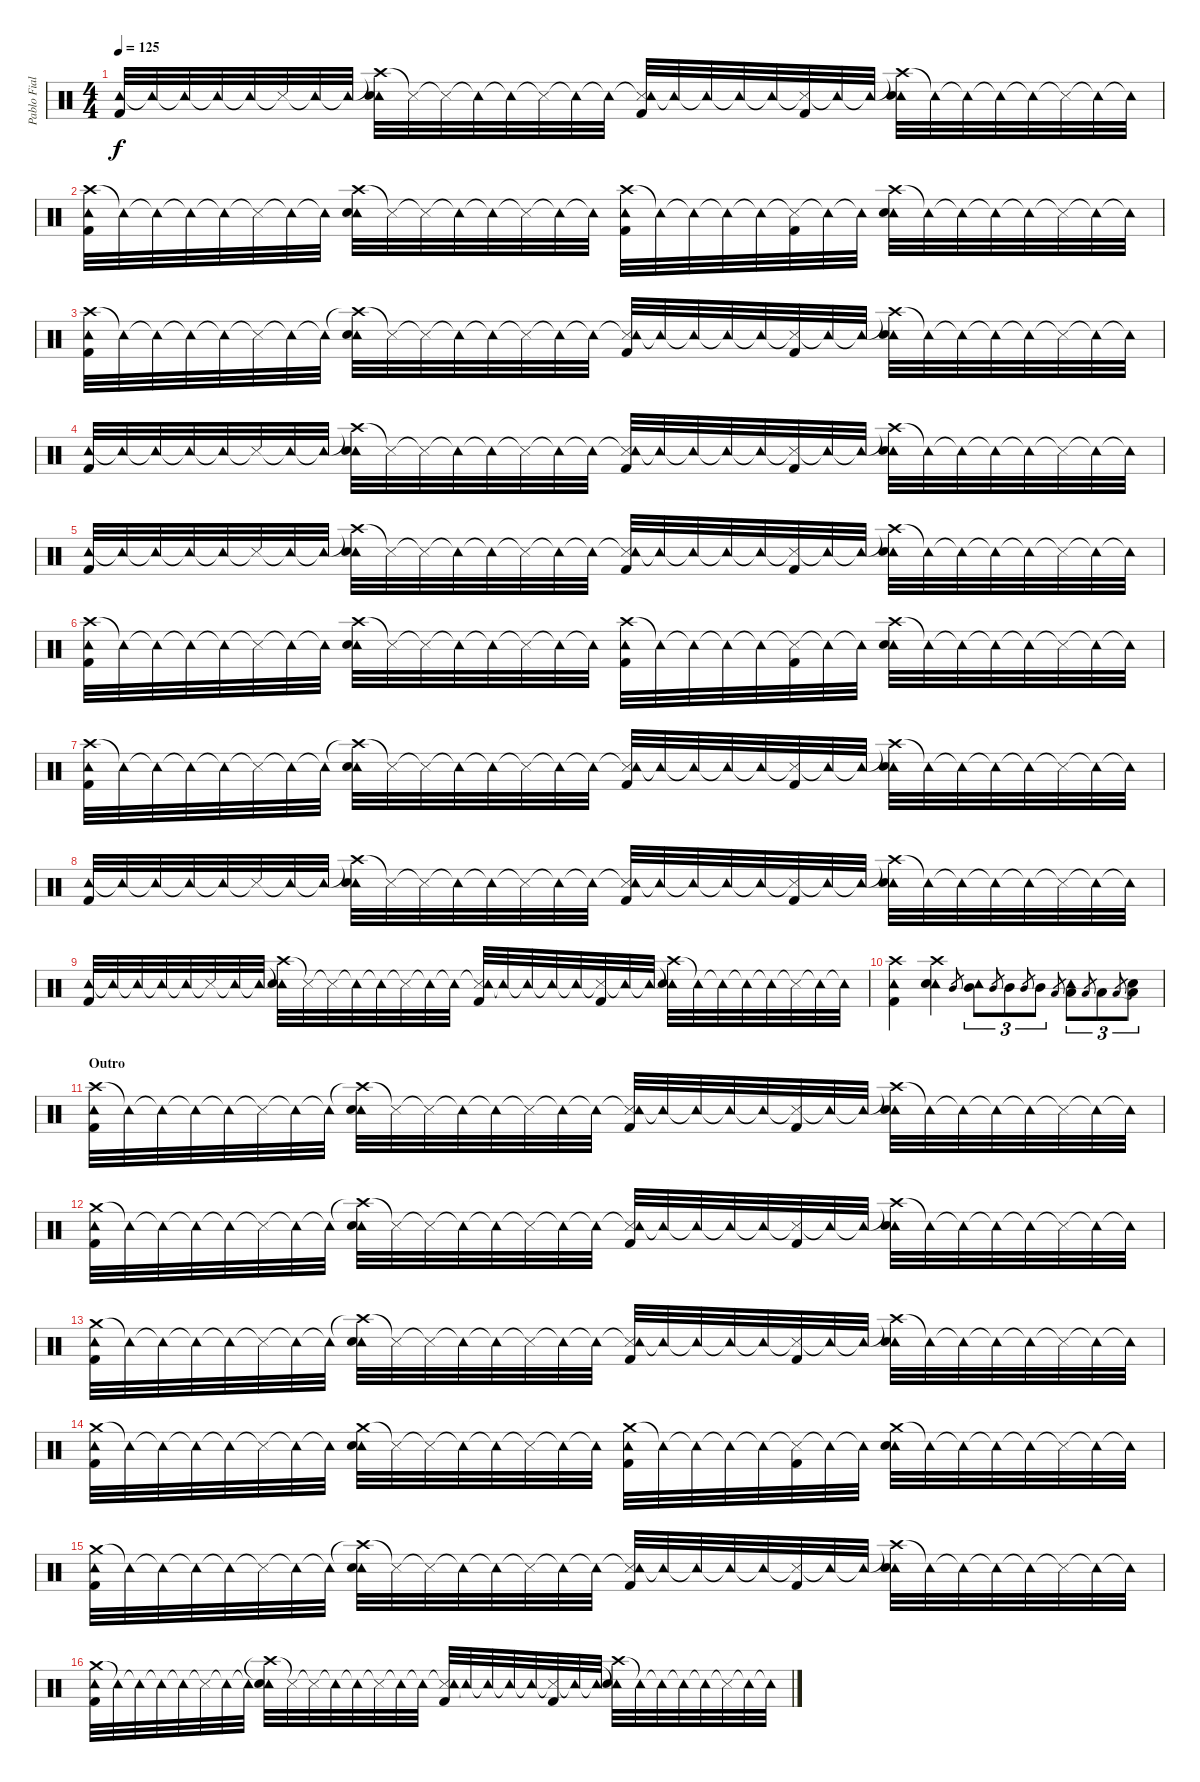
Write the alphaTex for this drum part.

\track ("Pablo Fiallo" "Pablo Fial") {instrument percussion}
\staff {score}
\articulation defaults
\ts (4 4)
\tempo 125
\clef neutral
\ks c
("Tambourine (hit)" "Kick (hit) 2").32{dy f} "Tambourine (hit)"{t}.32 "Tambourine (hit)"{t}.32 "Tambourine (hit)"{t}.32 "Tambourine (hit)"{t}.32 "Snare (side stick) 3"{t}.32 "Tambourine (hit)"{t}.32 "Tambourine (hit)"{t}.32 ("Crash high (hit)"{t} "Tambourine (hit)" "Snare (hit) 2").32 "Snare (side stick) 3"{t}.32 "Snare (side stick) 3"{t}.32 "Tambourine (hit)"{t}.32 "Tambourine (hit)"{t}.32 "Snare (side stick) 3"{t}.32 "Tambourine (hit)"{t}.32 "Tambourine (hit)"{t}.32 ("Snare (side stick) 3"{t} "Tambourine (hit)" "Kick (hit) 2").32 "Tambourine (hit)"{t}.32 "Tambourine (hit)"{t}.32 "Tambourine (hit)"{t}.32 "Tambourine (hit)"{t}.32 ("Snare (side stick) 3"{t} "Kick (hit) 2").32 "Tambourine (hit)"{t}.32 "Tambourine (hit)"{t}.32 ("Crash high (hit)"{t} "Tambourine (hit)" "Snare (hit) 2").32 "Tambourine (hit)"{t}.32 "Tambourine (hit)"{t}.32 "Tambourine (hit)"{t}.32 "Tambourine (hit)"{t}.32 "Snare (side stick) 3"{t}.32 "Tambourine (hit)"{t}.32 "Tambourine (hit)"{t}.32 |
("Crash high (hit)" "Tambourine (hit)" "Kick (hit) 2").32 "Tambourine (hit)"{t}.32 "Tambourine (hit)"{t}.32 "Tambourine (hit)"{t}.32 "Tambourine (hit)"{t}.32 "Snare (side stick) 3"{t}.32 "Tambourine (hit)"{t}.32 "Tambourine (hit)"{t}.32 ("Crash high (hit)" "Tambourine (hit)" "Snare (hit) 2").32 "Snare (side stick) 3"{t}.32 "Snare (side stick) 3"{t}.32 "Tambourine (hit)"{t}.32 "Tambourine (hit)"{t}.32 "Snare (side stick) 3"{t}.32 "Tambourine (hit)"{t}.32 "Tambourine (hit)"{t}.32 ("Crash high (hit)" "Tambourine (hit)" "Kick (hit) 2").32 "Tambourine (hit)"{t}.32 "Tambourine (hit)"{t}.32 "Tambourine (hit)"{t}.32 "Tambourine (hit)"{t}.32 ("Snare (side stick) 3"{t} "Kick (hit) 2").32 "Tambourine (hit)"{t}.32 "Tambourine (hit)"{t}.32 ("Crash high (hit)" "Tambourine (hit)" "Snare (hit) 2").32 "Tambourine (hit)"{t}.32 "Tambourine (hit)"{t}.32 "Tambourine (hit)"{t}.32 "Tambourine (hit)"{t}.32 "Snare (side stick) 3"{t}.32 "Tambourine (hit)"{t}.32 "Tambourine (hit)"{t}.32 |
("Crash high (hit)" "Tambourine (hit)" "Kick (hit) 2").32 "Tambourine (hit)"{t}.32 "Tambourine (hit)"{t}.32 "Tambourine (hit)"{t}.32 "Tambourine (hit)"{t}.32 "Snare (side stick) 3"{t}.32 "Tambourine (hit)"{t}.32 "Tambourine (hit)"{t}.32 ("Crash high (hit)"{t} "Tambourine (hit)" "Snare (hit) 2").32 "Snare (side stick) 3"{t}.32 "Snare (side stick) 3"{t}.32 "Tambourine (hit)"{t}.32 "Tambourine (hit)"{t}.32 "Snare (side stick) 3"{t}.32 "Tambourine (hit)"{t}.32 "Tambourine (hit)"{t}.32 ("Snare (side stick) 3"{t} "Tambourine (hit)" "Kick (hit) 2").32 "Tambourine (hit)"{t}.32 "Tambourine (hit)"{t}.32 "Tambourine (hit)"{t}.32 "Tambourine (hit)"{t}.32 ("Snare (side stick) 3"{t} "Kick (hit) 2").32 "Tambourine (hit)"{t}.32 "Tambourine (hit)"{t}.32 ("Crash high (hit)"{t} "Tambourine (hit)" "Snare (hit) 2").32 "Tambourine (hit)"{t}.32 "Tambourine (hit)"{t}.32 "Tambourine (hit)"{t}.32 "Tambourine (hit)"{t}.32 "Snare (side stick) 3"{t}.32 "Tambourine (hit)"{t}.32 "Tambourine (hit)"{t}.32 |
("Tambourine (hit)" "Kick (hit) 2").32 "Tambourine (hit)"{t}.32 "Tambourine (hit)"{t}.32 "Tambourine (hit)"{t}.32 "Tambourine (hit)"{t}.32 "Snare (side stick) 3"{t}.32 "Tambourine (hit)"{t}.32 "Tambourine (hit)"{t}.32 ("Crash high (hit)"{t} "Tambourine (hit)" "Snare (hit) 2").32 "Snare (side stick) 3"{t}.32 "Snare (side stick) 3"{t}.32 "Tambourine (hit)"{t}.32 "Tambourine (hit)"{t}.32 "Snare (side stick) 3"{t}.32 "Tambourine (hit)"{t}.32 "Tambourine (hit)"{t}.32 ("Snare (side stick) 3"{t} "Tambourine (hit)" "Kick (hit) 2").32 "Tambourine (hit)"{t}.32 "Tambourine (hit)"{t}.32 "Tambourine (hit)"{t}.32 "Tambourine (hit)"{t}.32 ("Snare (side stick) 3"{t} "Kick (hit) 2").32 "Tambourine (hit)"{t}.32 "Tambourine (hit)"{t}.32 ("Crash high (hit)"{t} "Tambourine (hit)" "Snare (hit) 2").32 "Tambourine (hit)"{t}.32 "Tambourine (hit)"{t}.32 "Tambourine (hit)"{t}.32 "Tambourine (hit)"{t}.32 "Snare (side stick) 3"{t}.32 "Tambourine (hit)"{t}.32 "Tambourine (hit)"{t}.32 |
("Tambourine (hit)" "Kick (hit) 2").32 "Tambourine (hit)"{t}.32 "Tambourine (hit)"{t}.32 "Tambourine (hit)"{t}.32 "Tambourine (hit)"{t}.32 "Snare (side stick) 3"{t}.32 "Tambourine (hit)"{t}.32 "Tambourine (hit)"{t}.32 ("Crash high (hit)"{t} "Tambourine (hit)" "Snare (hit) 2").32 "Snare (side stick) 3"{t}.32 "Snare (side stick) 3"{t}.32 "Tambourine (hit)"{t}.32 "Tambourine (hit)"{t}.32 "Snare (side stick) 3"{t}.32 "Tambourine (hit)"{t}.32 "Tambourine (hit)"{t}.32 ("Snare (side stick) 3"{t} "Tambourine (hit)" "Kick (hit) 2").32 "Tambourine (hit)"{t}.32 "Tambourine (hit)"{t}.32 "Tambourine (hit)"{t}.32 "Tambourine (hit)"{t}.32 ("Snare (side stick) 3"{t} "Kick (hit) 2").32 "Tambourine (hit)"{t}.32 "Tambourine (hit)"{t}.32 ("Crash high (hit)"{t} "Tambourine (hit)" "Snare (hit) 2").32 "Tambourine (hit)"{t}.32 "Tambourine (hit)"{t}.32 "Tambourine (hit)"{t}.32 "Tambourine (hit)"{t}.32 "Snare (side stick) 3"{t}.32 "Tambourine (hit)"{t}.32 "Tambourine (hit)"{t}.32 |
("Crash high (hit)" "Tambourine (hit)" "Kick (hit) 2").32 "Tambourine (hit)"{t}.32 "Tambourine (hit)"{t}.32 "Tambourine (hit)"{t}.32 "Tambourine (hit)"{t}.32 "Snare (side stick) 3"{t}.32 "Tambourine (hit)"{t}.32 "Tambourine (hit)"{t}.32 ("Crash high (hit)" "Tambourine (hit)" "Snare (hit) 2").32 "Snare (side stick) 3"{t}.32 "Snare (side stick) 3"{t}.32 "Tambourine (hit)"{t}.32 "Tambourine (hit)"{t}.32 "Snare (side stick) 3"{t}.32 "Tambourine (hit)"{t}.32 "Tambourine (hit)"{t}.32 ("Crash high (hit)" "Tambourine (hit)" "Kick (hit) 2").32 "Tambourine (hit)"{t}.32 "Tambourine (hit)"{t}.32 "Tambourine (hit)"{t}.32 "Tambourine (hit)"{t}.32 ("Snare (side stick) 3"{t} "Kick (hit) 2").32 "Tambourine (hit)"{t}.32 "Tambourine (hit)"{t}.32 ("Crash high (hit)" "Tambourine (hit)" "Snare (hit) 2").32 "Tambourine (hit)"{t}.32 "Tambourine (hit)"{t}.32 "Tambourine (hit)"{t}.32 "Tambourine (hit)"{t}.32 "Snare (side stick) 3"{t}.32 "Tambourine (hit)"{t}.32 "Tambourine (hit)"{t}.32 |
("Crash high (hit)" "Tambourine (hit)" "Kick (hit) 2").32 "Tambourine (hit)"{t}.32 "Tambourine (hit)"{t}.32 "Tambourine (hit)"{t}.32 "Tambourine (hit)"{t}.32 "Snare (side stick) 3"{t}.32 "Tambourine (hit)"{t}.32 "Tambourine (hit)"{t}.32 ("Crash high (hit)"{t} "Tambourine (hit)" "Snare (hit) 2").32 "Snare (side stick) 3"{t}.32 "Snare (side stick) 3"{t}.32 "Tambourine (hit)"{t}.32 "Tambourine (hit)"{t}.32 "Snare (side stick) 3"{t}.32 "Tambourine (hit)"{t}.32 "Tambourine (hit)"{t}.32 ("Snare (side stick) 3"{t} "Tambourine (hit)" "Kick (hit) 2").32 "Tambourine (hit)"{t}.32 "Tambourine (hit)"{t}.32 "Tambourine (hit)"{t}.32 "Tambourine (hit)"{t}.32 ("Snare (side stick) 3"{t} "Kick (hit) 2").32 "Tambourine (hit)"{t}.32 "Tambourine (hit)"{t}.32 ("Crash high (hit)"{t} "Tambourine (hit)" "Snare (hit) 2").32 "Tambourine (hit)"{t}.32 "Tambourine (hit)"{t}.32 "Tambourine (hit)"{t}.32 "Tambourine (hit)"{t}.32 "Snare (side stick) 3"{t}.32 "Tambourine (hit)"{t}.32 "Tambourine (hit)"{t}.32 |
("Tambourine (hit)" "Kick (hit) 2").32 "Tambourine (hit)"{t}.32 "Tambourine (hit)"{t}.32 "Tambourine (hit)"{t}.32 "Tambourine (hit)"{t}.32 "Snare (side stick) 3"{t}.32 "Tambourine (hit)"{t}.32 "Tambourine (hit)"{t}.32 ("Crash high (hit)"{t} "Tambourine (hit)" "Snare (hit) 2").32 "Snare (side stick) 3"{t}.32 "Snare (side stick) 3"{t}.32 "Tambourine (hit)"{t}.32 "Tambourine (hit)"{t}.32 "Snare (side stick) 3"{t}.32 "Tambourine (hit)"{t}.32 "Tambourine (hit)"{t}.32 ("Snare (side stick) 3"{t} "Tambourine (hit)" "Kick (hit) 2").32 "Tambourine (hit)"{t}.32 "Tambourine (hit)"{t}.32 "Tambourine (hit)"{t}.32 "Tambourine (hit)"{t}.32 ("Snare (side stick) 3"{t} "Kick (hit) 2").32 "Tambourine (hit)"{t}.32 "Tambourine (hit)"{t}.32 ("Crash high (hit)"{t} "Tambourine (hit)" "Snare (hit) 2").32 "Tambourine (hit)"{t}.32 "Tambourine (hit)"{t}.32 "Tambourine (hit)"{t}.32 "Tambourine (hit)"{t}.32 "Snare (side stick) 3"{t}.32 "Tambourine (hit)"{t}.32 "Tambourine (hit)"{t}.32 |
("Tambourine (hit)" "Kick (hit) 2").32 "Tambourine (hit)"{t}.32 "Tambourine (hit)"{t}.32 "Tambourine (hit)"{t}.32 "Tambourine (hit)"{t}.32 "Snare (side stick) 3"{t}.32 "Tambourine (hit)"{t}.32 "Tambourine (hit)"{t}.32 ("Crash high (hit)"{t} "Tambourine (hit)" "Snare (hit) 2").32 "Snare (side stick) 3"{t}.32 "Snare (side stick) 3"{t}.32 "Tambourine (hit)"{t}.32 "Tambourine (hit)"{t}.32 "Snare (side stick) 3"{t}.32 "Tambourine (hit)"{t}.32 "Tambourine (hit)"{t}.32 ("Snare (side stick) 3"{t} "Tambourine (hit)" "Kick (hit) 2").32 "Tambourine (hit)"{t}.32 "Tambourine (hit)"{t}.32 "Tambourine (hit)"{t}.32 "Tambourine (hit)"{t}.32 ("Snare (side stick) 3"{t} "Kick (hit) 2").32 "Tambourine (hit)"{t}.32 "Tambourine (hit)"{t}.32 ("Crash high (hit)"{t} "Tambourine (hit)" "Snare (hit) 2").32 "Tambourine (hit)"{t}.32 "Tambourine (hit)"{t}.32 "Tambourine (hit)"{t}.32 "Tambourine (hit)"{t}.32 "Snare (side stick) 3"{t}.32 "Tambourine (hit)"{t}.32 "Tambourine (hit)"{t}.32 |
("Crash high (hit)" "Tambourine (hit)" "Kick (hit) 2").4 ("Crash high (hit)" "Tambourine (hit)" "Snare (hit) 2").4 "Mid Tom (hit)".8{gr} ("Tambourine (hit)" "Mid Tom (hit)").8{tu (3 2)} "Mid Tom (hit)".8{gr} "Mid Tom (hit)".8{tu (3 2)} "Mid Tom (hit)".8{gr} "Mid Tom (hit)".8{tu (3 2)} "Low Tom (hit)".8{gr} ("Tambourine (hit)" "Low Tom (hit)").8{tu (3 2)} "Low Tom (hit)".8{gr} "Low Tom (hit)".8{tu (3 2)} "Low Tom (hit)".8{gr} ("Snare (hit)"{t} "Low Tom (hit)").8{tu (3 2)} |
\section ("" "Outro")
("Crash high (hit)" "Tambourine (hit)" "Kick (hit) 2").32 "Tambourine (hit)"{t}.32 "Tambourine (hit)"{t}.32 "Tambourine (hit)"{t}.32 "Tambourine (hit)"{t}.32 "Snare (side stick) 3"{t}.32 "Tambourine (hit)"{t}.32 "Tambourine (hit)"{t}.32 ("Crash high (hit)"{t} "Tambourine (hit)" "Snare (hit) 2").32 "Snare (side stick) 3"{t}.32 "Snare (side stick) 3"{t}.32 "Tambourine (hit)"{t}.32 "Tambourine (hit)"{t}.32 "Snare (side stick) 3"{t}.32 "Tambourine (hit)"{t}.32 "Tambourine (hit)"{t}.32 ("Snare (side stick) 3"{t} "Tambourine (hit)" "Kick (hit) 2").32 "Tambourine (hit)"{t}.32 "Tambourine (hit)"{t}.32 "Tambourine (hit)"{t}.32 "Tambourine (hit)"{t}.32 ("Snare (side stick) 3"{t} "Kick (hit) 2").32 "Tambourine (hit)"{t}.32 "Tambourine (hit)"{t}.32 ("Crash high (hit)"{t} "Tambourine (hit)" "Snare (hit) 2").32 "Tambourine (hit)"{t}.32 "Tambourine (hit)"{t}.32 "Tambourine (hit)"{t}.32 "Tambourine (hit)"{t}.32 "Snare (side stick) 3"{t}.32 "Tambourine (hit)"{t}.32 "Tambourine (hit)"{t}.32 |
("Crash medium (hit)" "Tambourine (hit)" "Kick (hit) 2").32 "Tambourine (hit)"{t}.32 "Tambourine (hit)"{t}.32 "Tambourine (hit)"{t}.32 "Tambourine (hit)"{t}.32 "Snare (side stick) 3"{t}.32 "Tambourine (hit)"{t}.32 "Tambourine (hit)"{t}.32 ("Crash high (hit)"{t} "Tambourine (hit)" "Snare (hit) 2").32 "Snare (side stick) 3"{t}.32 "Snare (side stick) 3"{t}.32 "Tambourine (hit)"{t}.32 "Tambourine (hit)"{t}.32 "Snare (side stick) 3"{t}.32 "Tambourine (hit)"{t}.32 "Tambourine (hit)"{t}.32 ("Snare (side stick) 3"{t} "Tambourine (hit)" "Kick (hit) 2").32 "Tambourine (hit)"{t}.32 "Tambourine (hit)"{t}.32 "Tambourine (hit)"{t}.32 "Tambourine (hit)"{t}.32 ("Snare (side stick) 3"{t} "Kick (hit) 2").32 "Tambourine (hit)"{t}.32 "Tambourine (hit)"{t}.32 ("Crash high (hit)"{t} "Tambourine (hit)" "Snare (hit) 2").32 "Tambourine (hit)"{t}.32 "Tambourine (hit)"{t}.32 "Tambourine (hit)"{t}.32 "Tambourine (hit)"{t}.32 "Snare (side stick) 3"{t}.32 "Tambourine (hit)"{t}.32 "Tambourine (hit)"{t}.32 |
("Crash medium (hit)" "Tambourine (hit)" "Kick (hit) 2").32 "Tambourine (hit)"{t}.32 "Tambourine (hit)"{t}.32 "Tambourine (hit)"{t}.32 "Tambourine (hit)"{t}.32 "Snare (side stick) 3"{t}.32 "Tambourine (hit)"{t}.32 "Tambourine (hit)"{t}.32 ("Crash high (hit)"{t} "Tambourine (hit)" "Snare (hit) 2").32 "Snare (side stick) 3"{t}.32 "Snare (side stick) 3"{t}.32 "Tambourine (hit)"{t}.32 "Tambourine (hit)"{t}.32 "Snare (side stick) 3"{t}.32 "Tambourine (hit)"{t}.32 "Tambourine (hit)"{t}.32 ("Snare (side stick) 3"{t} "Tambourine (hit)" "Kick (hit) 2").32 "Tambourine (hit)"{t}.32 "Tambourine (hit)"{t}.32 "Tambourine (hit)"{t}.32 "Tambourine (hit)"{t}.32 ("Snare (side stick) 3"{t} "Kick (hit) 2").32 "Tambourine (hit)"{t}.32 "Tambourine (hit)"{t}.32 ("Crash high (hit)"{t} "Tambourine (hit)" "Snare (hit) 2").32 "Tambourine (hit)"{t}.32 "Tambourine (hit)"{t}.32 "Tambourine (hit)"{t}.32 "Tambourine (hit)"{t}.32 "Snare (side stick) 3"{t}.32 "Tambourine (hit)"{t}.32 "Tambourine (hit)"{t}.32 |
("Crash medium (hit)" "Tambourine (hit)" "Kick (hit) 2").32 "Tambourine (hit)"{t}.32 "Tambourine (hit)"{t}.32 "Tambourine (hit)"{t}.32 "Tambourine (hit)"{t}.32 "Snare (side stick) 3"{t}.32 "Tambourine (hit)"{t}.32 "Tambourine (hit)"{t}.32 ("Crash medium (hit)" "Tambourine (hit)" "Snare (hit) 2").32 "Snare (side stick) 3"{t}.32 "Snare (side stick) 3"{t}.32 "Tambourine (hit)"{t}.32 "Tambourine (hit)"{t}.32 "Snare (side stick) 3"{t}.32 "Tambourine (hit)"{t}.32 "Tambourine (hit)"{t}.32 ("Crash medium (hit)" "Tambourine (hit)" "Kick (hit) 2").32 "Tambourine (hit)"{t}.32 "Tambourine (hit)"{t}.32 "Tambourine (hit)"{t}.32 "Tambourine (hit)"{t}.32 ("Snare (side stick) 3"{t} "Kick (hit) 2").32 "Tambourine (hit)"{t}.32 "Tambourine (hit)"{t}.32 ("Crash medium (hit)" "Tambourine (hit)" "Snare (hit) 2").32 "Tambourine (hit)"{t}.32 "Tambourine (hit)"{t}.32 "Tambourine (hit)"{t}.32 "Tambourine (hit)"{t}.32 "Snare (side stick) 3"{t}.32 "Tambourine (hit)"{t}.32 "Tambourine (hit)"{t}.32 |
("Crash medium (hit)" "Tambourine (hit)" "Kick (hit) 2").32 "Tambourine (hit)"{t}.32 "Tambourine (hit)"{t}.32 "Tambourine (hit)"{t}.32 "Tambourine (hit)"{t}.32 "Snare (side stick) 3"{t}.32 "Tambourine (hit)"{t}.32 "Tambourine (hit)"{t}.32 ("Crash high (hit)"{t} "Tambourine (hit)" "Snare (hit) 2").32 "Snare (side stick) 3"{t}.32 "Snare (side stick) 3"{t}.32 "Tambourine (hit)"{t}.32 "Tambourine (hit)"{t}.32 "Snare (side stick) 3"{t}.32 "Tambourine (hit)"{t}.32 "Tambourine (hit)"{t}.32 ("Snare (side stick) 3"{t} "Tambourine (hit)" "Kick (hit) 2").32 "Tambourine (hit)"{t}.32 "Tambourine (hit)"{t}.32 "Tambourine (hit)"{t}.32 "Tambourine (hit)"{t}.32 ("Snare (side stick) 3"{t} "Kick (hit) 2").32 "Tambourine (hit)"{t}.32 "Tambourine (hit)"{t}.32 ("Crash high (hit)"{t} "Tambourine (hit)" "Snare (hit) 2").32 "Tambourine (hit)"{t}.32 "Tambourine (hit)"{t}.32 "Tambourine (hit)"{t}.32 "Tambourine (hit)"{t}.32 "Snare (side stick) 3"{t}.32 "Tambourine (hit)"{t}.32 "Tambourine (hit)"{t}.32 |
("Crash medium (hit)" "Tambourine (hit)" "Kick (hit) 2").32 "Tambourine (hit)"{t}.32 "Tambourine (hit)"{t}.32 "Tambourine (hit)"{t}.32 "Tambourine (hit)"{t}.32 "Snare (side stick) 3"{t}.32 "Tambourine (hit)"{t}.32 "Tambourine (hit)"{t}.32 ("Crash high (hit)"{t} "Tambourine (hit)" "Snare (hit) 2").32 "Snare (side stick) 3"{t}.32 "Snare (side stick) 3"{t}.32 "Tambourine (hit)"{t}.32 "Tambourine (hit)"{t}.32 "Snare (side stick) 3"{t}.32 "Tambourine (hit)"{t}.32 "Tambourine (hit)"{t}.32 ("Snare (side stick) 3"{t} "Tambourine (hit)" "Kick (hit) 2").32 "Tambourine (hit)"{t}.32 "Tambourine (hit)"{t}.32 "Tambourine (hit)"{t}.32 "Tambourine (hit)"{t}.32 ("Snare (side stick) 3"{t} "Kick (hit) 2").32 "Tambourine (hit)"{t}.32 "Tambourine (hit)"{t}.32 ("Crash high (hit)"{t} "Tambourine (hit)" "Snare (hit) 2").32 "Tambourine (hit)"{t}.32 "Tambourine (hit)"{t}.32 "Tambourine (hit)"{t}.32 "Tambourine (hit)"{t}.32 "Snare (side stick) 3"{t}.32 "Tambourine (hit)"{t}.32 "Tambourine (hit)"{t}.32
